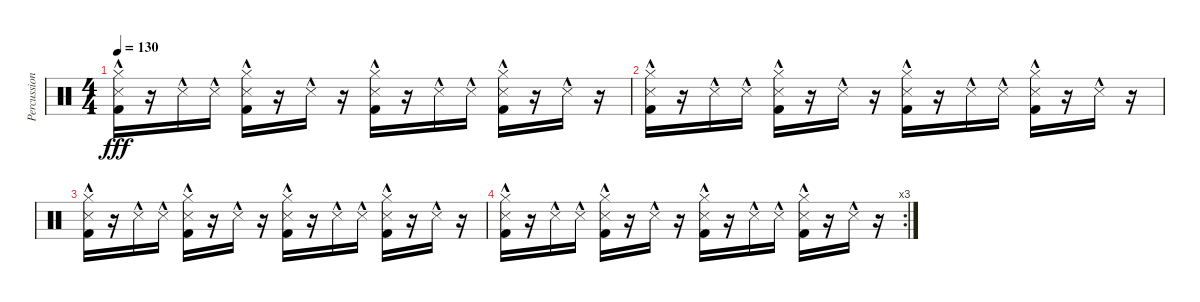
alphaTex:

\track ("Percussion" "Percussion") {instrument percussion}
\staff {score}
\articulation defaults
\ts (4 4)
\tempo 130
\clef neutral
\ks c
("Hi-Hat (closed)"{hac} "Snare (side stick) 3"{hac} "Kick (hit) 2"{hac}).16{dy fff} r.16 "Metronome (hit)"{hac}.16 "Metronome (hit)"{hac}.16 ("Hi-Hat (closed)"{hac} "Snare (side stick) 3"{hac} "Kick (hit) 2"{hac}).16 r.16 "Metronome (hit)"{hac}.16 r.16 ("Hi-Hat (closed)"{hac} "Snare (side stick) 3"{hac} "Kick (hit) 2"{hac}).16 r.16 "Metronome (hit)"{hac}.16 "Metronome (hit)"{hac}.16 ("Hi-Hat (closed)"{hac} "Snare (side stick) 3"{hac} "Kick (hit) 2"{hac}).16 r.16 "Metronome (hit)"{hac}.16 r.16 |
("Hi-Hat (closed)"{hac} "Snare (side stick) 3"{hac} "Kick (hit) 2"{hac}).16 r.16 "Metronome (hit)"{hac}.16 "Metronome (hit)"{hac}.16 ("Hi-Hat (closed)"{hac} "Snare (side stick) 3"{hac} "Kick (hit) 2"{hac}).16 r.16 "Metronome (hit)"{hac}.16 r.16 ("Hi-Hat (closed)"{hac} "Snare (side stick) 3"{hac} "Kick (hit) 2"{hac}).16 r.16 "Metronome (hit)"{hac}.16 "Metronome (hit)"{hac}.16 ("Hi-Hat (closed)"{hac} "Snare (side stick) 3"{hac} "Kick (hit) 2"{hac}).16 r.16 "Metronome (hit)"{hac}.16 r.16 |
("Hi-Hat (closed)"{hac} "Snare (side stick) 3"{hac} "Kick (hit) 2"{hac}).16 r.16 "Metronome (hit)"{hac}.16 "Metronome (hit)"{hac}.16 ("Hi-Hat (closed)"{hac} "Snare (side stick) 3"{hac} "Kick (hit) 2"{hac}).16 r.16 "Metronome (hit)"{hac}.16 r.16 ("Hi-Hat (closed)"{hac} "Snare (side stick) 3"{hac} "Kick (hit) 2"{hac}).16 r.16 "Metronome (hit)"{hac}.16 "Metronome (hit)"{hac}.16 ("Hi-Hat (closed)"{hac} "Snare (side stick) 3"{hac} "Kick (hit) 2"{hac}).16 r.16 "Metronome (hit)"{hac}.16 r.16 |
\rc 3
("Hi-Hat (closed)"{hac} "Snare (side stick) 3"{hac} "Kick (hit) 2"{hac}).16 r.16 "Metronome (hit)"{hac}.16 "Metronome (hit)"{hac}.16 ("Hi-Hat (closed)"{hac} "Snare (side stick) 3"{hac} "Kick (hit) 2"{hac}).16 r.16 "Metronome (hit)"{hac}.16 r.16 ("Hi-Hat (closed)"{hac} "Snare (side stick) 3"{hac} "Kick (hit) 2"{hac}).16 r.16 "Metronome (hit)"{hac}.16 "Metronome (hit)"{hac}.16 ("Hi-Hat (closed)"{hac} "Snare (side stick) 3"{hac} "Kick (hit) 2"{hac}).16 r.16 "Metronome (hit)"{hac}.16 r.16
